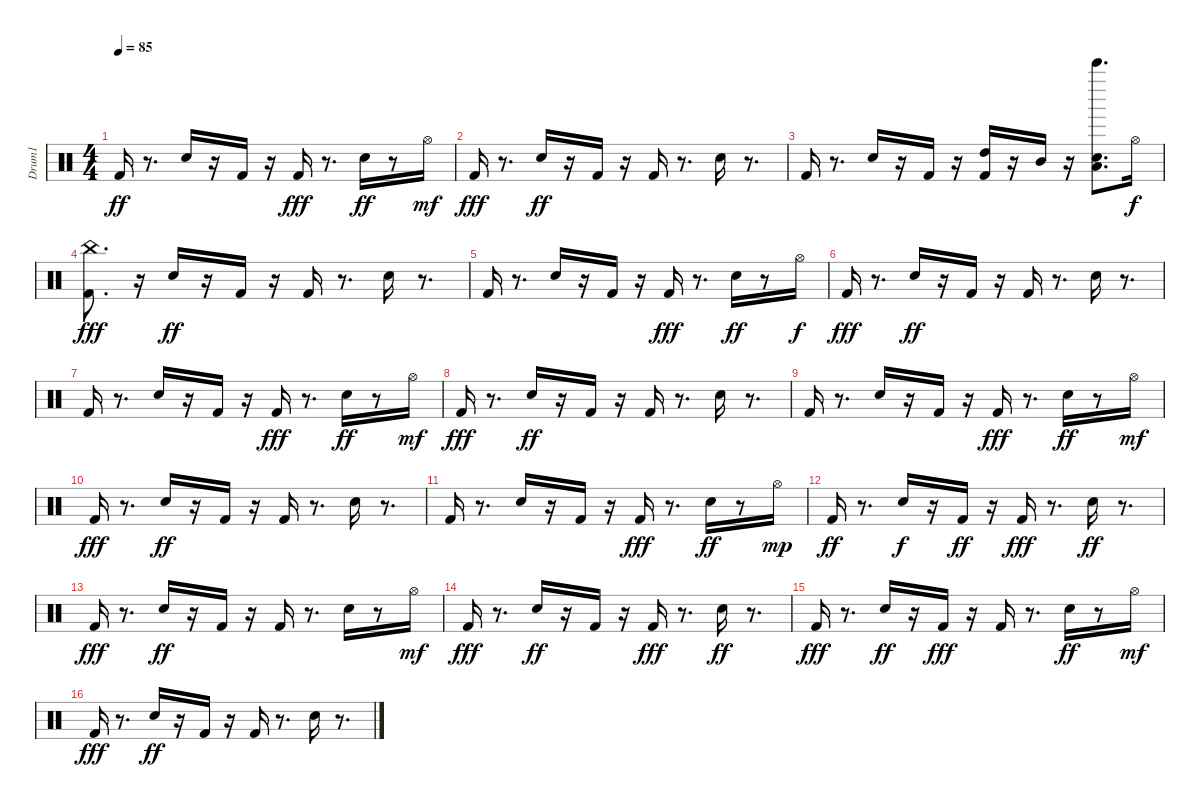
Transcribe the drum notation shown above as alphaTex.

\track ("Drum1" "Drum1") {instrument percussion}
\staff {score}
\articulation defaults
\ts (4 4)
\tempo 85
\clef neutral
\ks c "Kick (hit) 2".16{dy ff}
r.8{d} "Hand Clap (hit)".16 r.16 "Kick (hit) 2".16 r.16 "Kick (hit) 2".16{dy fff} r.8{d} "Hand Clap (hit)".16{dy ff} r.8 "Hi-Hat (open)".16{dy mf} |
"Kick (hit) 2".16{dy fff} r.8{d} "Hand Clap (hit)".16{dy ff} r.16 "Kick (hit) 2".16 r.16 "Kick (hit) 2".16 r.8{d} "Hand Clap (hit)".16 r.8{d} |
"Kick (hit) 2".16 r.8{d} "Hand Clap (hit)".16 r.16 "Kick (hit) 2".16 r.16 ("Kick (hit) 2" "High Tom (hit)").16 r.16 "Mid Tom (hit)".16 r.16 ("Hand Clap (hit)" "Low Tom (hit)" "Bell Tree (hit)").8{d} "Hi-Hat (open)".16{dy f} |
("China (hit)" "Kick (hit) 2").8{d dy fff} r.16 "Hand Clap (hit)".16{dy ff} r.16 "Kick (hit) 2".16 r.16 "Kick (hit) 2".16 r.8{d} "Hand Clap (hit)".16 r.8{d} |
"Kick (hit) 2".16 r.8{d} "Hand Clap (hit)".16 r.16 "Kick (hit) 2".16 r.16 "Kick (hit) 2".16{dy fff} r.8{d} "Hand Clap (hit)".16{dy ff} r.8 "Hi-Hat (open)".16{dy f} |
"Kick (hit) 2".16{dy fff} r.8{d} "Hand Clap (hit)".16{dy ff} r.16 "Kick (hit) 2".16 r.16 "Kick (hit) 2".16 r.8{d} "Hand Clap (hit)".16 r.8{d} |
"Kick (hit) 2".16 r.8{d} "Hand Clap (hit)".16 r.16 "Kick (hit) 2".16 r.16 "Kick (hit) 2".16{dy fff} r.8{d} "Hand Clap (hit)".16{dy ff} r.8 "Hi-Hat (open)".16{dy mf} |
"Kick (hit) 2".16{dy fff} r.8{d} "Hand Clap (hit)".16{dy ff} r.16 "Kick (hit) 2".16 r.16 "Kick (hit) 2".16 r.8{d} "Hand Clap (hit)".16 r.8{d} |
"Kick (hit) 2".16 r.8{d} "Hand Clap (hit)".16 r.16 "Kick (hit) 2".16 r.16 "Kick (hit) 2".16{dy fff} r.8{d} "Hand Clap (hit)".16{dy ff} r.8 "Hi-Hat (open)".16{dy mf} |
"Kick (hit) 2".16{dy fff} r.8{d} "Hand Clap (hit)".16{dy ff} r.16 "Kick (hit) 2".16 r.16 "Kick (hit) 2".16 r.8{d} "Hand Clap (hit)".16 r.8{d} |
"Kick (hit) 2".16 r.8{d} "Hand Clap (hit)".16 r.16 "Kick (hit) 2".16 r.16 "Kick (hit) 2".16{dy fff} r.8{d} "Hand Clap (hit)".16{dy ff} r.8 "Hi-Hat (open)".16{dy mp} |
"Kick (hit) 2".16{dy ff} r.8{d} "Hand Clap (hit)".16{dy f} r.16 "Kick (hit) 2".16{dy ff} r.16 "Kick (hit) 2".16{dy fff} r.8{d} "Hand Clap (hit)".16{dy ff} r.8{d} |
"Kick (hit) 2".16{dy fff} r.8{d} "Hand Clap (hit)".16{dy ff} r.16 "Kick (hit) 2".16 r.16 "Kick (hit) 2".16 r.8{d} "Hand Clap (hit)".16 r.8 "Hi-Hat (open)".16{dy mf} |
"Kick (hit) 2".16{dy fff} r.8{d} "Hand Clap (hit)".16{dy ff} r.16 "Kick (hit) 2".16 r.16 "Kick (hit) 2".16{dy fff} r.8{d} "Hand Clap (hit)".16{dy ff} r.8{d} |
"Kick (hit) 2".16{dy fff} r.8{d} "Hand Clap (hit)".16{dy ff} r.16 "Kick (hit) 2".16{dy fff} r.16 "Kick (hit) 2".16 r.8{d} "Hand Clap (hit)".16{dy ff} r.8 "Hi-Hat (open)".16{dy mf} |
"Kick (hit) 2".16{dy fff} r.8{d} "Hand Clap (hit)".16{dy ff} r.16 "Kick (hit) 2".16 r.16 "Kick (hit) 2".16 r.8{d} "Hand Clap (hit)".16 r.8{d}
